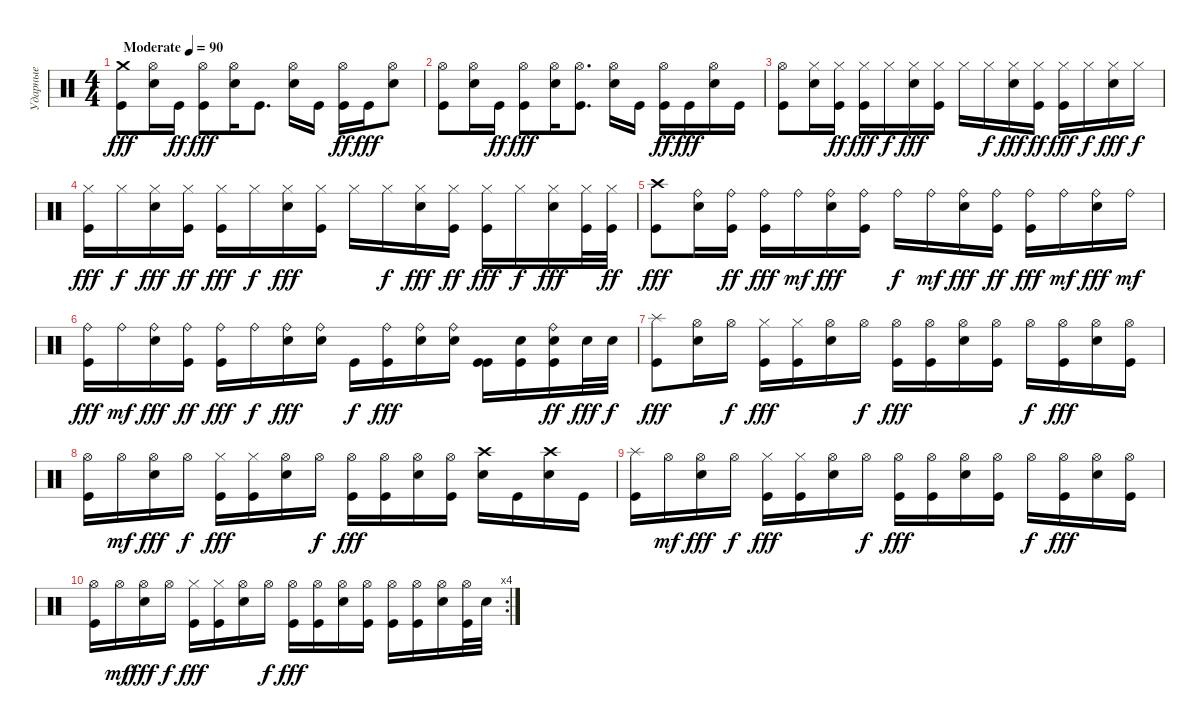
\track ("Ударные" "Ударные") {instrument percussion}
\staff {score}
\articulation defaults
\ts (4 4)
\tempo (90 "Moderate")
\clef neutral
\ks c
("Crash medium (hit)" "Kick (hit)").8{dy fff} ("Hi-Hat (open)" "Electric Snare (hit)").16 "Kick (hit)".16{dy ff} ("Hi-Hat (open)" "Kick (hit)").8{dy fff} ("Hi-Hat (open)" "Electric Snare (hit)").16 "Kick (hit)".8{d} ("Hi-Hat (open)" "Electric Snare (hit)").16 "Kick (hit)".16 ("Hi-Hat (open)" "Kick (hit)").16{dy ff} "Kick (hit)".16{dy fff} ("Hi-Hat (open)" "Electric Snare (hit)").8 |
("Hi-Hat (open)" "Kick (hit)").8 ("Hi-Hat (open)" "Electric Snare (hit)").16 "Kick (hit)".16{dy ff} ("Hi-Hat (open)" "Kick (hit)").8{dy fff} ("Hi-Hat (open)" "Electric Snare (hit)").16 ("Hi-Hat (open)" "Kick (hit)").8{d} ("Hi-Hat (open)" "Electric Snare (hit)").16 "Kick (hit)".16 ("Hi-Hat (open)" "Kick (hit)").16{dy ff} "Kick (hit)".16{dy fff} ("Hi-Hat (open)" "Electric Snare (hit)").16 "Kick (hit)".16 |
("Hi-Hat (open)" "Kick (hit)").8 ("Hi-Hat (closed)" "Electric Snare (hit)").16 ("Hi-Hat (closed)" "Kick (hit)").16{dy ff} ("Hi-Hat (closed)" "Kick (hit)").16{dy fff} "Hi-Hat (closed)".16{dy f} ("Hi-Hat (closed)" "Electric Snare (hit)").16{dy fff} ("Hi-Hat (closed)" "Kick (hit)").16 "Hi-Hat (closed)".16 "Hi-Hat (closed)".16{dy f} ("Hi-Hat (closed)" "Electric Snare (hit)").16{dy fff} ("Hi-Hat (closed)" "Kick (hit)").16{dy ff} ("Hi-Hat (closed)" "Kick (hit)").16{dy fff} "Hi-Hat (closed)".16{dy f} ("Hi-Hat (closed)" "Electric Snare (hit)").16{dy fff} "Hi-Hat (closed)".16{dy f} |
("Hi-Hat (closed)" "Kick (hit)").16{dy fff} "Hi-Hat (closed)".16{dy f} ("Hi-Hat (closed)" "Electric Snare (hit)").16{dy fff} ("Hi-Hat (closed)" "Kick (hit)").16{dy ff} ("Hi-Hat (closed)" "Kick (hit)").16{dy fff} "Hi-Hat (closed)".16{dy f} ("Hi-Hat (closed)" "Electric Snare (hit)").16{dy fff} ("Hi-Hat (closed)" "Kick (hit)").16 "Hi-Hat (closed)".16 "Hi-Hat (closed)".16{dy f} ("Hi-Hat (closed)" "Electric Snare (hit)").16{dy fff} ("Hi-Hat (closed)" "Kick (hit)").16{dy ff} ("Hi-Hat (closed)" "Kick (hit)").16{dy fff} "Hi-Hat (closed)".16{dy f} ("Hi-Hat (closed)" "Electric Snare (hit)").16{dy fff} ("Hi-Hat (closed)" "Kick (hit)").32 ("Hi-Hat (closed)" "Kick (hit)").32{dy ff} |
("Crash high (hit)" "Kick (hit)").8{dy fff} ("Ride (bell)" "Electric Snare (hit)").16 ("Ride (bell)" "Kick (hit)").16{dy ff} ("Ride (bell)" "Kick (hit)").16{dy fff} "Ride (bell)".16{dy mf} ("Ride (bell)" "Electric Snare (hit)").16{dy fff} ("Ride (bell)" "Kick (hit)").16 "Ride (bell)".16{dy f} "Ride (bell)".16{dy mf} ("Ride (bell)" "Electric Snare (hit)").16{dy fff} ("Ride (bell)" "Kick (hit)").16{dy ff} ("Ride (bell)" "Kick (hit)").16{dy fff} "Ride (bell)".16{dy mf} ("Ride (bell)" "Electric Snare (hit)").16{dy fff} "Ride (bell)".16{dy mf} |
("Ride (bell)" "Kick (hit)").16{dy fff} "Ride (bell)".16{dy mf} ("Ride (bell)" "Electric Snare (hit)").16{dy fff} ("Ride (bell)" "Kick (hit)").16{dy ff} ("Ride (bell)" "Kick (hit)").16{dy fff} "Ride (bell)".16{dy f} ("Ride (bell)" "Electric Snare (hit)").16{dy fff} ("Ride (bell)" "Electric Snare (hit)").16 "Kick (hit)".16{dy f} ("Ride (bell)" "Kick (hit)").16{dy fff} ("Ride (bell)" "Electric Snare (hit)").16 ("Ride (bell)" "Electric Snare (hit)").16 ("Kick (hit)" "Kick (hit)").16 ("Kick (hit)" "Electric Snare (hit)").16 ("Ride (bell)" "Electric Snare (hit)" "Kick (hit)").16{dy ff} "Electric Snare (hit)".32{dy fff} "Electric Snare (hit)".32{dy f} |
("Splash (hit)" "Kick (hit)").8{dy fff} ("Hi-Hat (open)" "Electric Snare (hit)").16 "Hi-Hat (open)".16{dy f} ("Hi-Hat (closed)" "Kick (hit)").16{dy fff} ("Hi-Hat (closed)" "Kick (hit)").16 ("Hi-Hat (open)" "Electric Snare (hit)").16 "Hi-Hat (open)".16{dy f} ("Hi-Hat (open)" "Kick (hit)").16{dy fff} ("Hi-Hat (open)" "Kick (hit)").16 ("Hi-Hat (open)" "Electric Snare (hit)").16 ("Hi-Hat (open)" "Kick (hit)").16 "Hi-Hat (open)".16{dy f} ("Hi-Hat (open)" "Kick (hit)").16{dy fff} ("Hi-Hat (open)" "Electric Snare (hit)").16 ("Hi-Hat (open)" "Kick (hit)").16 |
("Hi-Hat (open)" "Kick (hit)").16 "Hi-Hat (open)".16{dy mf} ("Hi-Hat (open)" "Electric Snare (hit)").16{dy fff} "Hi-Hat (open)".16{dy f} ("Hi-Hat (closed)" "Kick (hit)").16{dy fff} ("Hi-Hat (closed)" "Kick (hit)").16 ("Hi-Hat (open)" "Electric Snare (hit)").16 "Hi-Hat (open)".16{dy f} ("Hi-Hat (open)" "Kick (hit)").16{dy fff} ("Hi-Hat (open)" "Kick (hit)").16 ("Hi-Hat (open)" "Electric Snare (hit)").16 ("Hi-Hat (open)" "Kick (hit)").16 ("Crash high (hit)" "Electric Snare (hit)").16 "Kick (hit)".16 ("Crash high (hit)" "Electric Snare (hit)").16 "Kick (hit)".16 |
("Splash (hit)" "Kick (hit)").16 "Hi-Hat (open)".16{dy mf} ("Hi-Hat (open)" "Electric Snare (hit)").16{dy fff} "Hi-Hat (open)".16{dy f} ("Hi-Hat (closed)" "Kick (hit)").16{dy fff} ("Hi-Hat (closed)" "Kick (hit)").16 ("Hi-Hat (open)" "Electric Snare (hit)").16 "Hi-Hat (open)".16{dy f} ("Hi-Hat (open)" "Kick (hit)").16{dy fff} ("Hi-Hat (open)" "Kick (hit)").16 ("Hi-Hat (open)" "Electric Snare (hit)").16 ("Hi-Hat (open)" "Kick (hit)").16 "Hi-Hat (open)".16{dy f} ("Hi-Hat (open)" "Kick (hit)").16{dy fff} ("Hi-Hat (open)" "Electric Snare (hit)").16 ("Hi-Hat (open)" "Kick (hit)").16 |
\rc 4
("Hi-Hat (open)" "Kick (hit)").16 "Hi-Hat (open)".16{dy mf} ("Hi-Hat (open)" "Electric Snare (hit)").16{dy fff} "Hi-Hat (open)".16{dy f} ("Hi-Hat (closed)" "Kick (hit)").16{dy fff} ("Hi-Hat (closed)" "Kick (hit)").16 ("Hi-Hat (open)" "Electric Snare (hit)").16 "Hi-Hat (open)".16{dy f} ("Hi-Hat (open)" "Kick (hit)").16{dy fff} ("Hi-Hat (open)" "Kick (hit)").16 ("Hi-Hat (open)" "Electric Snare (hit)").16 ("Hi-Hat (open)" "Kick (hit)").16 ("Hi-Hat (open)" "Kick (hit)").16 ("Hi-Hat (open)" "Kick (hit)").16 ("Hi-Hat (open)" "Electric Snare (hit)").16 ("Hi-Hat (open)" "Kick (hit)").32 "Electric Snare (hit)".32
